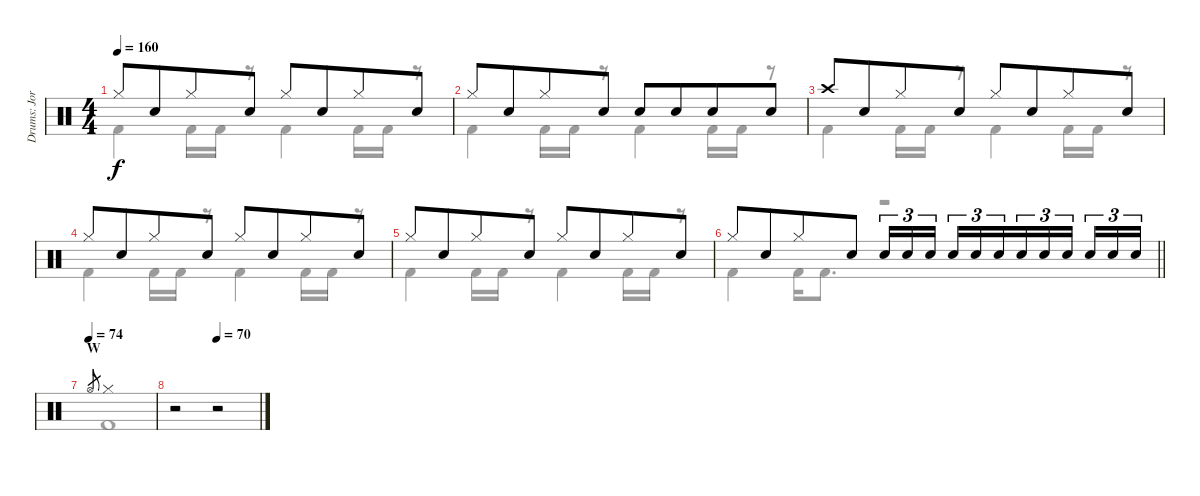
\track ("Drums: Jorg" "Drums: Jor") {instrument percussion}
\staff {score}
\articulation defaults
\voice
\ts (4 4)
\tempo 160
\clef neutral
\ks c "Hi-Hat (closed)".8{dy f} "Snare (hit) 2".8{beam merge} "Hi-Hat (closed)".8 "Snare (hit) 2".8 "Hi-Hat (closed)".8 "Snare (hit) 2".8{beam merge} "Hi-Hat (closed)".8 "Snare (hit) 2".8
|
"Hi-Hat (closed)".8 "Snare (hit) 2".8{beam merge} "Hi-Hat (closed)".8 "Snare (hit) 2".8 "Snare (hit) 2".8 "Snare (hit) 2".8{beam merge} "Snare (hit) 2".8 "Snare (hit) 2".8 |
"Crash high (hit)".8 "Snare (hit) 2".8{beam merge} "Hi-Hat (closed)".8 "Snare (hit) 2".8{beam split} "Hi-Hat (closed)".8 "Snare (hit) 2".8{beam merge} "Hi-Hat (closed)".8 "Snare (hit) 2".8 |
"Hi-Hat (closed)".8 "Snare (hit) 2".8{beam merge} "Hi-Hat (closed)".8 "Snare (hit) 2".8{beam split} "Hi-Hat (closed)".8 "Snare (hit) 2".8{beam merge} "Hi-Hat (closed)".8 "Snare (hit) 2".8 |
"Hi-Hat (closed)".8 "Snare (hit) 2".8{beam merge} "Hi-Hat (closed)".8 "Snare (hit) 2".8{beam split} "Hi-Hat (closed)".8 "Snare (hit) 2".8{beam merge} "Hi-Hat (closed)".8 "Snare (hit) 2".8 |
\barLineRight lightlight "Hi-Hat (closed)".8 "Snare (hit) 2".8{beam merge} "Hi-Hat (closed)".8 "Snare (hit) 2".8 "Snare (hit) 2".16{tu (3 2)} "Snare (hit) 2".16{tu (3 2) beam merge} "Snare (hit) 2".16{tu (3 2) beam splitsecondary} "Snare (hit) 2".16{tu (3 2)} "Snare (hit) 2".16{tu (3 2)} "Snare (hit) 2".16{tu (3 2) beam merge} "Snare (hit) 2".16{tu (3 2)} "Snare (hit) 2".16{tu (3 2)} "Snare (hit) 2".16{tu (3 2) beam splitsecondary} "Snare (hit) 2".16{tu (3 2)} "Snare (hit) 2".16{tu (3 2)} "Snare (hit) 2".16{tu (3 2)}
|
\section ("" "W")
\tempo (74)
"Hi-Hat (open)".8{gr} "Hi-Hat (closed)".1 |
\tempo (70 0.5)
r.2 r.2 |
|
|
|
|
|
\voice
\clef neutral
\ottava regular
\simile none
\ks c "Kick (hit) 2".4{dy f} "Kick (hit) 2".16 "Kick (hit) 2".16
r.8 "Kick (hit) 2".4 "Kick (hit) 2".16 "Kick (hit) 2".16 r.8 |
"Kick (hit) 2".4 "Kick (hit) 2".16 "Kick (hit) 2".16 r.8 "Kick (hit) 2".4 "Kick (hit) 2".16 "Kick (hit) 2".16 r.8 |
"Kick (hit) 2".4 "Kick (hit) 2".16 "Kick (hit) 2".16 r.8 "Kick (hit) 2".4 "Kick (hit) 2".16 "Kick (hit) 2".16 r.8 |
"Kick (hit) 2".4 "Kick (hit) 2".16 "Kick (hit) 2".16 r.8 "Kick (hit) 2".4 "Kick (hit) 2".16 "Kick (hit) 2".16 r.8 |
"Kick (hit) 2".4 "Kick (hit) 2".16 "Kick (hit) 2".16 r.8 "Kick (hit) 2".4 "Kick (hit) 2".16 "Kick (hit) 2".16 r.8 |
\barLineRight lightlight "Kick (hit) 2".4 "Kick (hit) 2".16 "Kick (hit) 2".8{d}
r.2 |
"Kick (hit) 2".1 |
|
|
|
|
|
|
